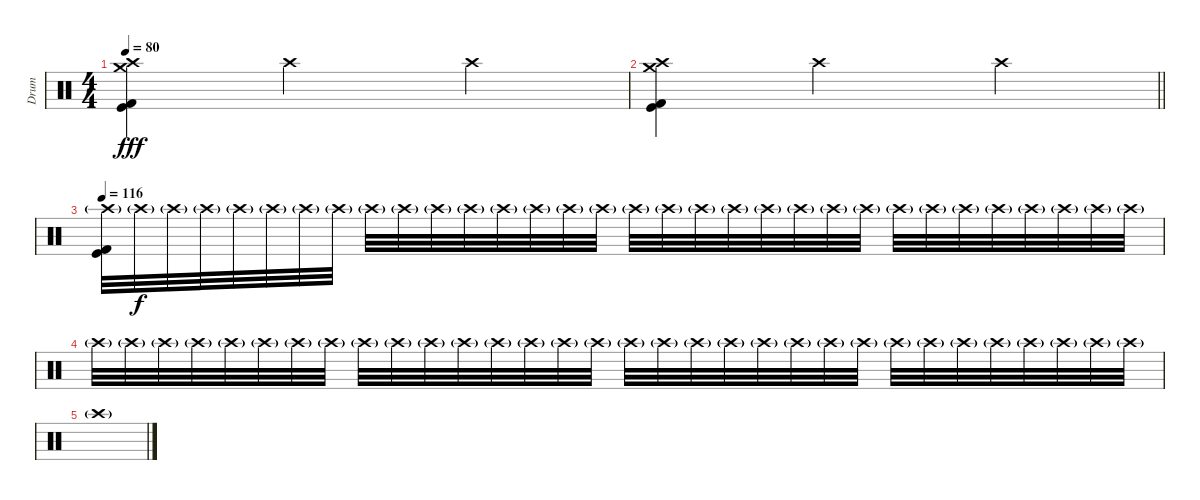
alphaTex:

\track ("Drum" "Drum") {instrument percussion}
\staff {score}
\articulation defaults
\ts (4 4)
\tempo 80
\clef neutral
\ks c
("Crash medium (hit)" "Crash high (hit)" "Kick (hit)" "Kick (hit) 2").4{dy fff} "Crash high (hit)".2 "Crash high (hit)".4 |
\barLineRight lightlight
("Crash medium (hit)" "Crash high (hit)" "Kick (hit)" "Kick (hit) 2").4 "Crash high (hit)".2 "Crash high (hit)".4 |
\tempo 116
("Crash high (hit)"{g} "Kick (hit)" "Kick (hit) 2").32 "Crash high (hit)"{g}.32{dy f} "Crash high (hit)"{g}.32 "Crash high (hit)"{g}.32 "Crash high (hit)"{g}.32 "Crash high (hit)"{g}.32 "Crash high (hit)"{g}.32 "Crash high (hit)"{g}.32 "Crash high (hit)"{g}.32 "Crash high (hit)"{g}.32 "Crash high (hit)"{g}.32 "Crash high (hit)"{g}.32 "Crash high (hit)"{g}.32 "Crash high (hit)"{g}.32 "Crash high (hit)"{g}.32 "Crash high (hit)"{g}.32 "Crash high (hit)"{g}.32 "Crash high (hit)"{g}.32 "Crash high (hit)"{g}.32 "Crash high (hit)"{g}.32 "Crash high (hit)"{g}.32 "Crash high (hit)"{g}.32 "Crash high (hit)"{g}.32 "Crash high (hit)"{g}.32 "Crash high (hit)"{g}.32 "Crash high (hit)"{g}.32 "Crash high (hit)"{g}.32 "Crash high (hit)"{g}.32 "Crash high (hit)"{g}.32 "Crash high (hit)"{g}.32 "Crash high (hit)"{g}.32 "Crash high (hit)"{g}.32 |
"Crash high (hit)"{g}.32 "Crash high (hit)"{g}.32 "Crash high (hit)"{g}.32 "Crash high (hit)"{g}.32 "Crash high (hit)"{g}.32 "Crash high (hit)"{g}.32 "Crash high (hit)"{g}.32 "Crash high (hit)"{g}.32 "Crash high (hit)"{g}.32 "Crash high (hit)"{g}.32 "Crash high (hit)"{g}.32 "Crash high (hit)"{g}.32 "Crash high (hit)"{g}.32 "Crash high (hit)"{g}.32 "Crash high (hit)"{g}.32 "Crash high (hit)"{g}.32 "Crash high (hit)"{g}.32 "Crash high (hit)"{g}.32 "Crash high (hit)"{g}.32 "Crash high (hit)"{g}.32 "Crash high (hit)"{g}.32 "Crash high (hit)"{g}.32 "Crash high (hit)"{g}.32 "Crash high (hit)"{g}.32 "Crash high (hit)"{g}.32 "Crash high (hit)"{g}.32 "Crash high (hit)"{g}.32 "Crash high (hit)"{g}.32 "Crash high (hit)"{g}.32 "Crash high (hit)"{g}.32 "Crash high (hit)"{g}.32 "Crash high (hit)"{g}.32 |
"Crash high (hit)"{g}.1
